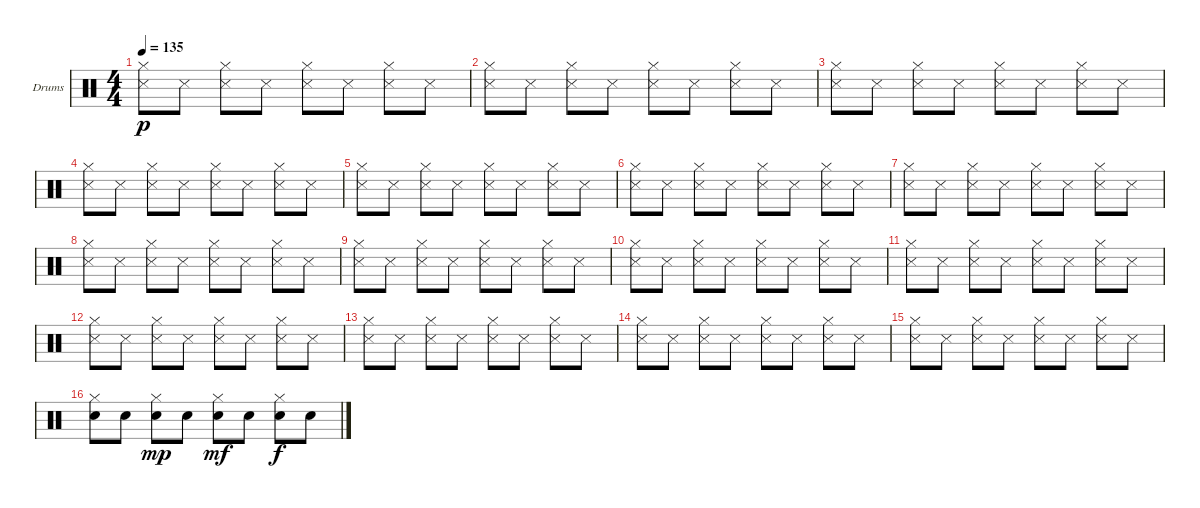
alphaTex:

\defaultSystemsLayout 4
\bracketExtendMode groupsimilarinstruments
\firstSystemTrackNameOrientation horizontal
\otherSystemsTrackNameOrientation horizontal
\track ("Drumkit" "Drums") {instrument percussion}
\staff {score}
\articulation defaults
\ts (4 4)
\tempo 135
\clef neutral
\scale
0.333333
\ks c
("Hi-Hat (closed)" "Snare (side stick) 3").8{dy p} "Snare (side stick) 3".8 ("Hi-Hat (closed)" "Snare (side stick) 3").8 "Snare (side stick) 3".8 ("Hi-Hat (closed)" "Snare (side stick) 3").8 "Snare (side stick) 3".8 ("Hi-Hat (closed)" "Snare (side stick) 3").8 "Snare (side stick) 3".8 |
\scale
0.333333 ("Hi-Hat (closed)" "Snare (side stick) 3").8 "Snare (side stick) 3".8 ("Hi-Hat (closed)" "Snare (side stick) 3").8 "Snare (side stick) 3".8 ("Hi-Hat (closed)" "Snare (side stick) 3").8 "Snare (side stick) 3".8 ("Hi-Hat (closed)" "Snare (side stick) 3").8 "Snare (side stick) 3".8 |
\scale
0.333333 ("Hi-Hat (closed)" "Snare (side stick) 3").8 "Snare (side stick) 3".8 ("Hi-Hat (closed)" "Snare (side stick) 3").8 "Snare (side stick) 3".8 ("Hi-Hat (closed)" "Snare (side stick) 3").8 "Snare (side stick) 3".8 ("Hi-Hat (closed)" "Snare (side stick) 3").8 "Snare (side stick) 3".8 |
\scale
0.333333 ("Hi-Hat (closed)" "Snare (side stick) 3").8 "Snare (side stick) 3".8 ("Hi-Hat (closed)" "Snare (side stick) 3").8 "Snare (side stick) 3".8 ("Hi-Hat (closed)" "Snare (side stick) 3").8 "Snare (side stick) 3".8 ("Hi-Hat (closed)" "Snare (side stick) 3").8 "Snare (side stick) 3".8 |
\scale
0.333333 ("Hi-Hat (closed)" "Snare (side stick) 3").8 "Snare (side stick) 3".8 ("Hi-Hat (closed)" "Snare (side stick) 3").8 "Snare (side stick) 3".8 ("Hi-Hat (closed)" "Snare (side stick) 3").8 "Snare (side stick) 3".8 ("Hi-Hat (closed)" "Snare (side stick) 3").8 "Snare (side stick) 3".8 |
\scale
0.333333 ("Hi-Hat (closed)" "Snare (side stick) 3").8 "Snare (side stick) 3".8 ("Hi-Hat (closed)" "Snare (side stick) 3").8 "Snare (side stick) 3".8 ("Hi-Hat (closed)" "Snare (side stick) 3").8 "Snare (side stick) 3".8 ("Hi-Hat (closed)" "Snare (side stick) 3").8 "Snare (side stick) 3".8 |
\scale
0.333333 ("Hi-Hat (closed)" "Snare (side stick) 3").8 "Snare (side stick) 3".8 ("Hi-Hat (closed)" "Snare (side stick) 3").8 "Snare (side stick) 3".8 ("Hi-Hat (closed)" "Snare (side stick) 3").8 "Snare (side stick) 3".8 ("Hi-Hat (closed)" "Snare (side stick) 3").8 "Snare (side stick) 3".8 |
\scale
0.333333 ("Hi-Hat (closed)" "Snare (side stick) 3").8 "Snare (side stick) 3".8 ("Hi-Hat (closed)" "Snare (side stick) 3").8 "Snare (side stick) 3".8 ("Hi-Hat (closed)" "Snare (side stick) 3").8 "Snare (side stick) 3".8 ("Hi-Hat (closed)" "Snare (side stick) 3").8 "Snare (side stick) 3".8 |
\scale
0.333333 ("Hi-Hat (closed)" "Snare (side stick) 3").8 "Snare (side stick) 3".8 ("Hi-Hat (closed)" "Snare (side stick) 3").8 "Snare (side stick) 3".8 ("Hi-Hat (closed)" "Snare (side stick) 3").8 "Snare (side stick) 3".8 ("Hi-Hat (closed)" "Snare (side stick) 3").8 "Snare (side stick) 3".8 |
\scale
0.333333 ("Hi-Hat (closed)" "Snare (side stick) 3").8 "Snare (side stick) 3".8 ("Hi-Hat (closed)" "Snare (side stick) 3").8 "Snare (side stick) 3".8 ("Hi-Hat (closed)" "Snare (side stick) 3").8 "Snare (side stick) 3".8 ("Hi-Hat (closed)" "Snare (side stick) 3").8 "Snare (side stick) 3".8 |
\scale
0.333333 ("Hi-Hat (closed)" "Snare (side stick) 3").8 "Snare (side stick) 3".8 ("Hi-Hat (closed)" "Snare (side stick) 3").8 "Snare (side stick) 3".8 ("Hi-Hat (closed)" "Snare (side stick) 3").8 "Snare (side stick) 3".8 ("Hi-Hat (closed)" "Snare (side stick) 3").8 "Snare (side stick) 3".8 |
\scale
0.333333 ("Hi-Hat (closed)" "Snare (side stick) 3").8 "Snare (side stick) 3".8 ("Hi-Hat (closed)" "Snare (side stick) 3").8 "Snare (side stick) 3".8 ("Hi-Hat (closed)" "Snare (side stick) 3").8 "Snare (side stick) 3".8 ("Hi-Hat (closed)" "Snare (side stick) 3").8 "Snare (side stick) 3".8 |
\scale
0.333333 ("Hi-Hat (closed)" "Snare (side stick) 3").8 "Snare (side stick) 3".8 ("Hi-Hat (closed)" "Snare (side stick) 3").8 "Snare (side stick) 3".8 ("Hi-Hat (closed)" "Snare (side stick) 3").8 "Snare (side stick) 3".8 ("Hi-Hat (closed)" "Snare (side stick) 3").8 "Snare (side stick) 3".8 |
\scale
0.333333 ("Hi-Hat (closed)" "Snare (side stick) 3").8 "Snare (side stick) 3".8 ("Hi-Hat (closed)" "Snare (side stick) 3").8 "Snare (side stick) 3".8 ("Hi-Hat (closed)" "Snare (side stick) 3").8 "Snare (side stick) 3".8 ("Hi-Hat (closed)" "Snare (side stick) 3").8 "Snare (side stick) 3".8 |
\scale
0.333333 ("Hi-Hat (closed)" "Snare (side stick) 3").8 "Snare (side stick) 3".8 ("Hi-Hat (closed)" "Snare (side stick) 3").8 "Snare (side stick) 3".8 ("Hi-Hat (closed)" "Snare (side stick) 3").8 "Snare (side stick) 3".8 ("Hi-Hat (closed)" "Snare (side stick) 3").8 "Snare (side stick) 3".8 |
\scale
0.333333 ("Hi-Hat (closed)" "Snare (hit) 2").8 "Snare (hit) 2".8 ("Hi-Hat (closed)" "Snare (hit) 2").8{dy mp} "Snare (hit) 2".8 ("Hi-Hat (closed)" "Snare (hit) 2").8{dy mf} "Snare (hit) 2".8 ("Hi-Hat (closed)" "Snare (hit) 2").8{dy f} "Snare (hit) 2".8
